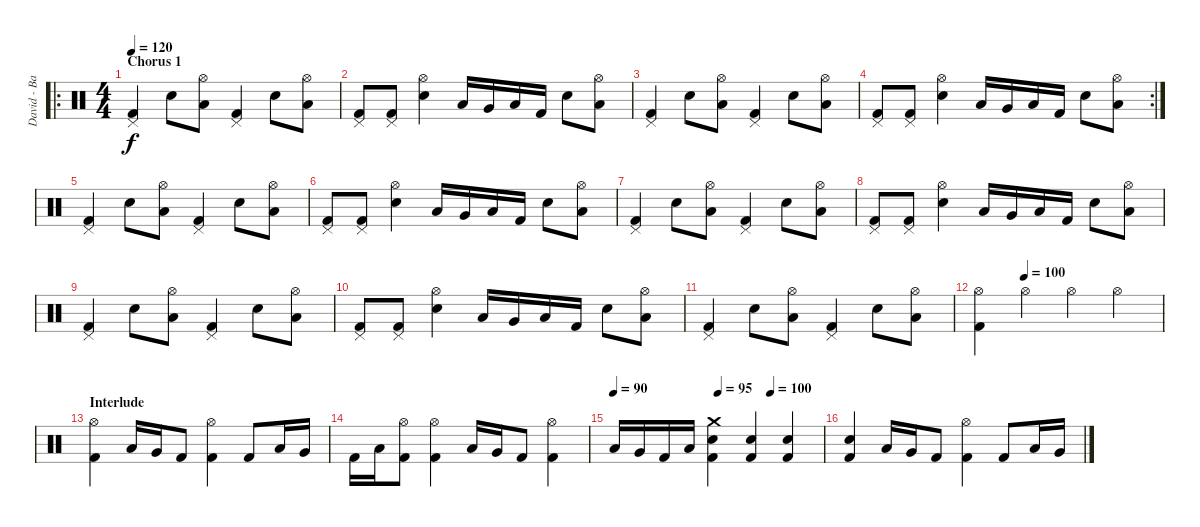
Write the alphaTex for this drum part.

\track ("David - Batterie" "David - Ba") {instrument percussion}
\staff {score}
\articulation defaults
\ro
\ts (4 4)
\section ("" "Chorus 1")
\tempo 120
\clef neutral
\ks c
("Kick (hit) 2" "Pedal Hi-Hat (hit)").4{dy f} "Electric Snare (hit)".8 ("Hi-Hat (open)" "Low Tom (hit)").8 ("Kick (hit) 2" "Pedal Hi-Hat (hit)").4 "Electric Snare (hit)".8 ("Hi-Hat (open)" "Low Tom (hit)").8 |
("Kick (hit) 2" "Pedal Hi-Hat (hit)").8 ("Kick (hit) 2" "Pedal Hi-Hat (hit)").8 ("Electric Snare (hit)" "Hi-Hat (open)").4 "Low Tom (hit)".16 "Very Low Tom (hit)".16 "Low Floor Tom (hit)".16 "Kick (hit) 2".16 "Electric Snare (hit)".8 ("Low Tom (hit)" "Hi-Hat (open)").8 |
("Kick (hit) 2" "Pedal Hi-Hat (hit)").4 "Electric Snare (hit)".8 ("Hi-Hat (open)" "Low Tom (hit)").8 ("Kick (hit) 2" "Pedal Hi-Hat (hit)").4 "Electric Snare (hit)".8 ("Hi-Hat (open)" "Low Tom (hit)").8 |
\rc 2
("Kick (hit) 2" "Pedal Hi-Hat (hit)").8 ("Kick (hit) 2" "Pedal Hi-Hat (hit)").8 ("Electric Snare (hit)" "Hi-Hat (open)").4 "Low Tom (hit)".16 "Very Low Tom (hit)".16 "Low Floor Tom (hit)".16 "Kick (hit) 2".16 "Electric Snare (hit)".8 ("Low Tom (hit)" "Hi-Hat (open)").8 |
("Kick (hit) 2" "Pedal Hi-Hat (hit)").4 "Electric Snare (hit)".8 ("Hi-Hat (open)" "Low Tom (hit)").8 ("Kick (hit) 2" "Pedal Hi-Hat (hit)").4 "Electric Snare (hit)".8 ("Hi-Hat (open)" "Low Tom (hit)").8 |
("Kick (hit) 2" "Pedal Hi-Hat (hit)").8 ("Kick (hit) 2" "Pedal Hi-Hat (hit)").8 ("Electric Snare (hit)" "Hi-Hat (open)").4 "Low Tom (hit)".16 "Very Low Tom (hit)".16 "Low Floor Tom (hit)".16 "Kick (hit) 2".16 "Electric Snare (hit)".8 ("Low Tom (hit)" "Hi-Hat (open)").8 |
("Kick (hit) 2" "Pedal Hi-Hat (hit)").4 "Electric Snare (hit)".8 ("Hi-Hat (open)" "Low Tom (hit)").8 ("Kick (hit) 2" "Pedal Hi-Hat (hit)").4 "Electric Snare (hit)".8 ("Hi-Hat (open)" "Low Tom (hit)").8 |
("Kick (hit) 2" "Pedal Hi-Hat (hit)").8 ("Kick (hit) 2" "Pedal Hi-Hat (hit)").8 ("Electric Snare (hit)" "Hi-Hat (open)").4 "Low Tom (hit)".16 "Very Low Tom (hit)".16 "Low Floor Tom (hit)".16 "Kick (hit) 2".16 "Electric Snare (hit)".8 ("Low Tom (hit)" "Hi-Hat (open)").8 |
("Kick (hit) 2" "Pedal Hi-Hat (hit)").4 "Electric Snare (hit)".8 ("Hi-Hat (open)" "Low Tom (hit)").8 ("Kick (hit) 2" "Pedal Hi-Hat (hit)").4 "Electric Snare (hit)".8 ("Hi-Hat (open)" "Low Tom (hit)").8 |
("Kick (hit) 2" "Pedal Hi-Hat (hit)").8 ("Kick (hit) 2" "Pedal Hi-Hat (hit)").8 ("Electric Snare (hit)" "Hi-Hat (open)").4 "Low Tom (hit)".16 "Very Low Tom (hit)".16 "Low Floor Tom (hit)".16 "Kick (hit) 2".16 "Electric Snare (hit)".8 ("Low Tom (hit)" "Hi-Hat (open)").8 |
("Kick (hit) 2" "Pedal Hi-Hat (hit)").4 "Electric Snare (hit)".8 ("Hi-Hat (open)" "Low Tom (hit)").8 ("Kick (hit) 2" "Pedal Hi-Hat (hit)").4 "Electric Snare (hit)".8 ("Hi-Hat (open)" "Low Tom (hit)").8 |
\tempo (100 0.25)
("Kick (hit) 2" "Hi-Hat (open)").4 "Hi-Hat (open)".4 "Hi-Hat (open)".4 "Hi-Hat (open)".4 |
\section ("" "Interlude")
("Kick (hit) 2" "Hi-Hat (open)").4 "Low Tom (hit)".16 "Very Low Tom (hit)".16 "Kick (hit) 2".8 ("Kick (hit) 2" "Hi-Hat (open)").4 "Kick (hit) 2".8 "Low Tom (hit)".16 "Very Low Tom (hit)".16 |
"Kick (hit) 2".16 "Low Tom (hit)".16 ("Kick (hit) 2" "Hi-Hat (open)").8 ("Kick (hit) 2" "Hi-Hat (open)").4 "Low Tom (hit)".16 "Very Low Tom (hit)".16 "Kick (hit) 2".8 ("Kick (hit) 2" "Hi-Hat (open)").4 |
\tempo 90
\tempo (95 0.5)
\tempo (100 0.75)
"Low Tom (hit)".16 "Very Low Tom (hit)".16 "Kick (hit) 2".16 "Low Tom (hit)".16 ("Kick (hit) 2" "Snare (hit) 2" "Crash medium (hit)").4 ("Kick (hit) 2" "Snare (hit) 2").4 ("Kick (hit) 2" "Snare (hit) 2").4 |
("Kick (hit) 2" "Snare (hit) 2").4 "Low Tom (hit)".16 "Very Low Tom (hit)".16 "Kick (hit) 2".8 ("Kick (hit) 2" "Hi-Hat (open)").4 "Kick (hit) 2".8 "Low Tom (hit)".16 "Very Low Tom (hit)".16
